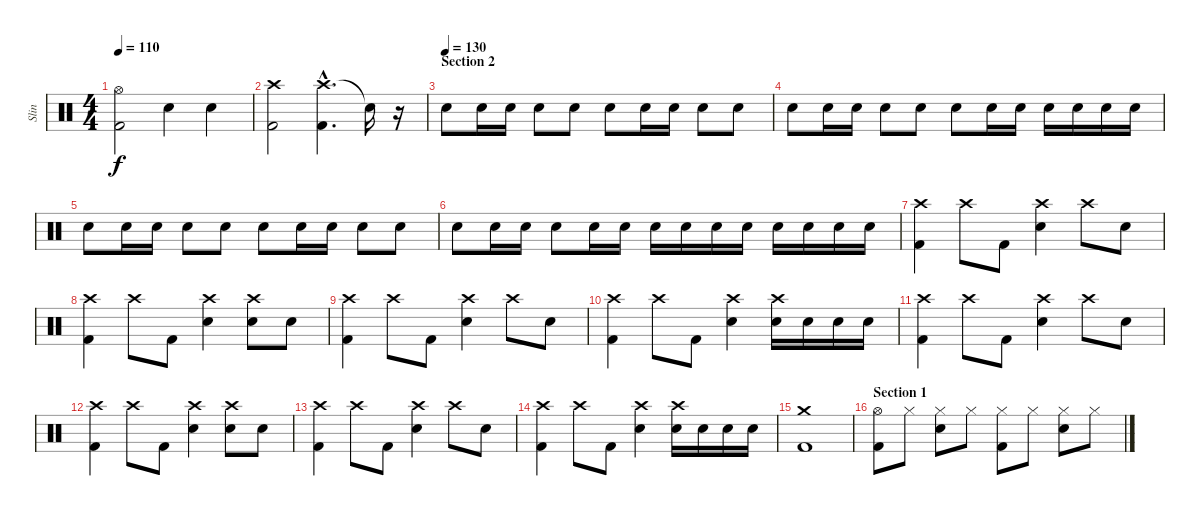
\track ("Slin" "Slin") {instrument percussion}
\staff {score}
\articulation defaults
\ts (4 4)
\tempo 110
\clef neutral
\ks c
("Hi-Hat (open)" "Kick (hit) 2").2{dy f} "Snare (hit) 2".4 "Snare (hit) 2".4 |
("Crash high (hit)" "Kick (hit) 2").2 ("Crash high (hit)"{hac} "Kick (hit) 2"{hac}).4{d} "Snare (hit)"{t}.16 r.16{volume 4} |
\section ("" "Section 2")
\tempo (130)
"Snare (hit) 2".8{volume 13} "Snare (hit) 2".16 "Snare (hit) 2".16 "Snare (hit) 2".8 "Snare (hit) 2".8 "Snare (hit) 2".8 "Snare (hit) 2".16 "Snare (hit) 2".16 "Snare (hit) 2".8 "Snare (hit) 2".8 |
"Snare (hit) 2".8 "Snare (hit) 2".16 "Snare (hit) 2".16 "Snare (hit) 2".8 "Snare (hit) 2".8 "Snare (hit) 2".8 "Snare (hit) 2".16 "Snare (hit) 2".16 "Snare (hit) 2".16 "Snare (hit) 2".16 "Snare (hit) 2".16 "Snare (hit) 2".16 |
"Snare (hit) 2".8 "Snare (hit) 2".16 "Snare (hit) 2".16 "Snare (hit) 2".8 "Snare (hit) 2".8 "Snare (hit) 2".8 "Snare (hit) 2".16 "Snare (hit) 2".16 "Snare (hit) 2".8 "Snare (hit) 2".8 |
"Snare (hit) 2".8 "Snare (hit) 2".16 "Snare (hit) 2".16 "Snare (hit) 2".8 "Snare (hit) 2".16 "Snare (hit) 2".16 "Snare (hit) 2".16 "Snare (hit) 2".16 "Snare (hit) 2".16 "Snare (hit) 2".16 "Snare (hit) 2".16 "Snare (hit) 2".16 "Snare (hit) 2".16 "Snare (hit) 2".16 |
("Crash high (hit)" "Kick (hit) 2").4 "Crash high (hit)".8 "Kick (hit) 2".8 ("Crash high (hit)" "Snare (hit) 2").4 "Crash high (hit)".8 "Snare (hit) 2".8 |
("Crash high (hit)" "Kick (hit) 2").4 "Crash high (hit)".8 "Kick (hit) 2".8 ("Crash high (hit)" "Snare (hit) 2").4 ("Crash high (hit)" "Snare (hit) 2").8 "Snare (hit) 2".8 |
("Crash high (hit)" "Kick (hit) 2").4 "Crash high (hit)".8 "Kick (hit) 2".8 ("Crash high (hit)" "Snare (hit) 2").4 "Crash high (hit)".8 "Snare (hit) 2".8 |
("Crash high (hit)" "Kick (hit) 2").4 "Crash high (hit)".8 "Kick (hit) 2".8 ("Crash high (hit)" "Snare (hit) 2").4 ("Crash high (hit)" "Snare (hit) 2").16 "Snare (hit) 2".16 "Snare (hit) 2".16 "Snare (hit) 2".16 |
("Crash high (hit)" "Kick (hit) 2").4 "Crash high (hit)".8 "Kick (hit) 2".8 ("Crash high (hit)" "Snare (hit) 2").4 "Crash high (hit)".8 "Snare (hit) 2".8 |
("Crash high (hit)" "Kick (hit) 2").4 "Crash high (hit)".8 "Kick (hit) 2".8 ("Crash high (hit)" "Snare (hit) 2").4 ("Crash high (hit)" "Snare (hit) 2").8 "Snare (hit) 2".8 |
("Crash high (hit)" "Kick (hit) 2").4 "Crash high (hit)".8 "Kick (hit) 2".8 ("Crash high (hit)" "Snare (hit) 2").4 "Crash high (hit)".8 "Snare (hit) 2".8 |
("Crash high (hit)" "Kick (hit) 2").4 "Crash high (hit)".8 "Kick (hit) 2".8 ("Crash high (hit)" "Snare (hit) 2").4 ("Crash high (hit)" "Snare (hit) 2").16 "Snare (hit) 2".16 "Snare (hit) 2".16 "Snare (hit) 2".16 |
("Crash medium (hit)" "Kick (hit) 2").1 |
\section ("" "Section 1")
("Hi-Hat (open)" "Kick (hit) 2").8 "Hi-Hat (closed)".8 ("Hi-Hat (closed)" "Snare (hit) 2").8 "Hi-Hat (closed)".8 ("Hi-Hat (closed)" "Kick (hit) 2").8 "Hi-Hat (closed)".8 ("Hi-Hat (closed)" "Snare (hit) 2").8 "Hi-Hat (closed)".8
